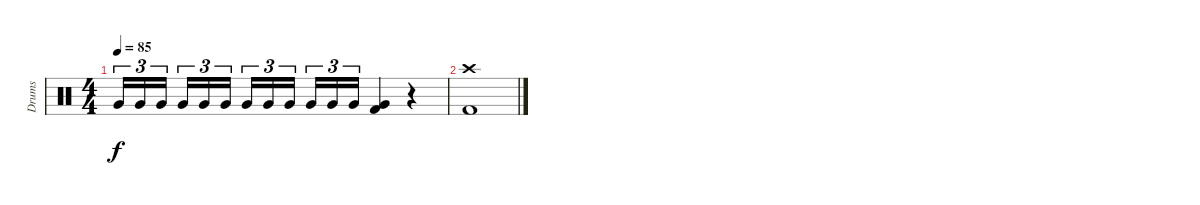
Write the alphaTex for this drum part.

\track ("Drums" "Drums") {instrument percussion}
\staff {score}
\articulation defaults
\ts (4 4)
\tempo 85
\clef neutral
\ks c "Very Low Tom (hit)".16{tu (3 2) dy f} "Very Low Tom (hit)".16{tu (3 2)} "Very Low Tom (hit)".16{tu (3 2) beam splitsecondary} "Very Low Tom (hit)".16{tu (3 2)} "Very Low Tom (hit)".16{tu (3 2)} "Very Low Tom (hit)".16{tu (3 2)} "Very Low Tom (hit)".16{tu (3 2)} "Very Low Tom (hit)".16{tu (3 2)} "Very Low Tom (hit)".16{tu (3 2) beam splitsecondary} "Very Low Tom (hit)".16{tu (3 2)} "Very Low Tom (hit)".16{tu (3 2)} "Very Low Tom (hit)".16{tu (3 2)}
("Very Low Tom (hit)" "Kick (hit) 2").4 r.4 |
("Crash high (hit)" "Kick (hit) 2").1
